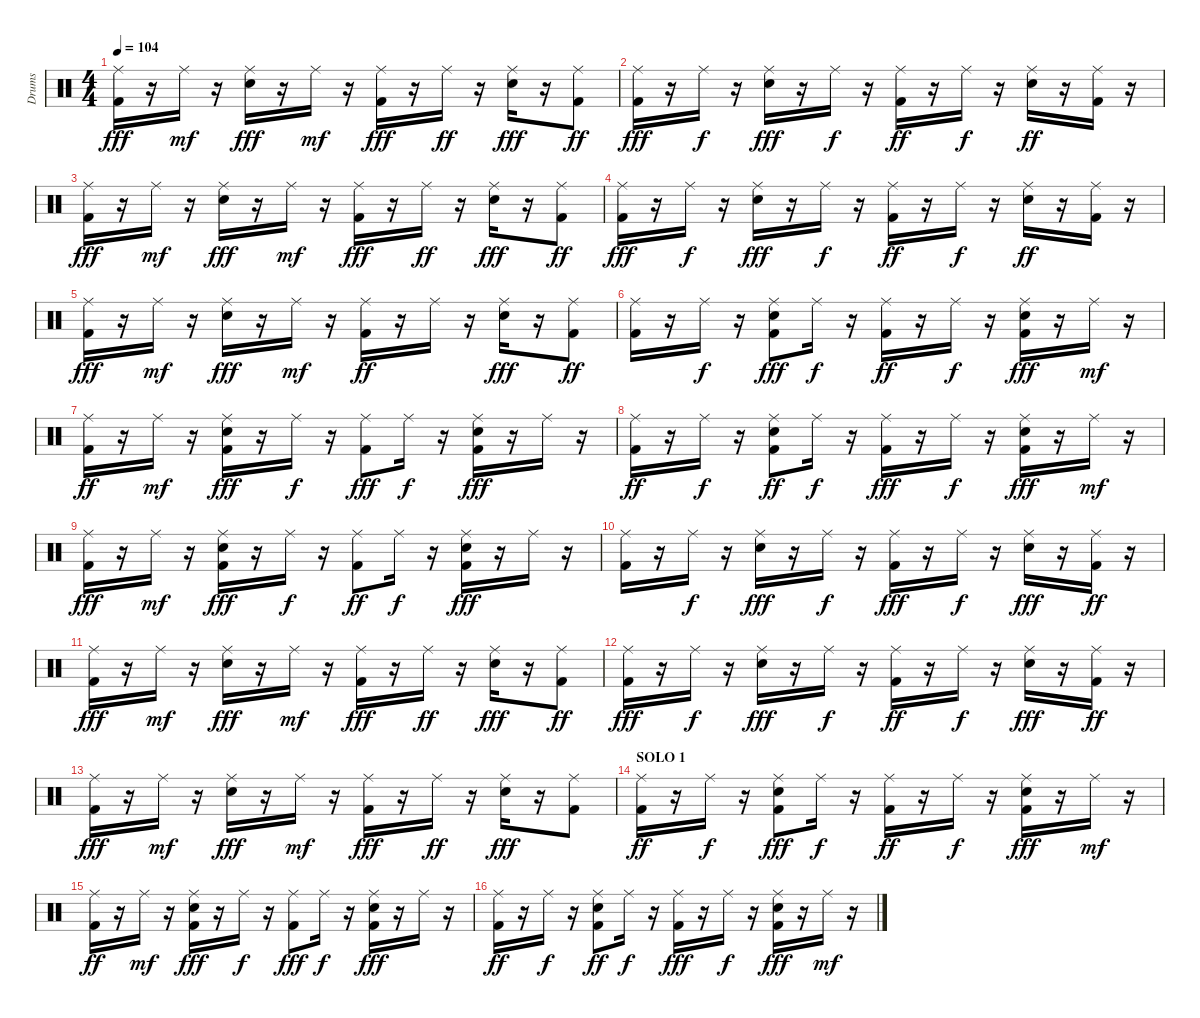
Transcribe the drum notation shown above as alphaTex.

\track ("Drums" "Drums") {instrument percussion}
\staff {score}
\articulation defaults
\ts (4 4)
\tempo 104
\clef neutral
\ks c
("Kick (hit) 2" "Ride (middle)").16{dy fff} r.16 "Ride (middle)".16{dy mf} r.16 ("Ride (middle)" "Snare (hit) 2").16{dy fff} r.16 "Ride (middle)".16{dy mf} r.16 ("Ride (middle)" "Kick (hit) 2").16{dy fff} r.16 "Ride (middle)".16{dy ff} r.16 ("Ride (middle)" "Snare (hit) 2").16{dy fff} r.16 ("Ride (middle)" "Kick (hit) 2").8{dy ff} |
("Ride (middle)" "Kick (hit) 2").16{dy fff} r.16 "Ride (middle)".16{dy f} r.16 ("Snare (hit) 2" "Ride (middle)").16{dy fff} r.16 "Ride (middle)".16{dy f} r.16 ("Kick (hit) 2" "Ride (middle)").16{dy ff} r.16 "Ride (middle)".16{dy f} r.16 ("Snare (hit) 2" "Ride (middle)").16{dy ff} r.16 ("Ride (middle)" "Kick (hit) 2").16 r.16 |
("Kick (hit) 2" "Ride (middle)").16{dy fff} r.16 "Ride (middle)".16{dy mf} r.16 ("Snare (hit) 2" "Ride (middle)").16{dy fff} r.16 "Ride (middle)".16{dy mf} r.16 ("Ride (middle)" "Kick (hit) 2").16{dy fff} r.16 "Ride (middle)".16{dy ff} r.16 ("Ride (middle)" "Snare (hit) 2").16{dy fff} r.16 ("Ride (middle)" "Kick (hit) 2").8{dy ff} |
("Ride (middle)" "Kick (hit) 2").16{dy fff} r.16 "Ride (middle)".16{dy f} r.16 ("Snare (hit) 2" "Ride (middle)").16{dy fff} r.16 "Ride (middle)".16{dy f} r.16 ("Kick (hit) 2" "Ride (middle)").16{dy ff} r.16 "Ride (middle)".16{dy f} r.16 ("Snare (hit) 2" "Ride (middle)").16{dy ff} r.16 ("Ride (middle)" "Kick (hit) 2").16 r.16 |
("Kick (hit) 2" "Ride (middle)").16{dy fff} r.16 "Ride (middle)".16{dy mf} r.16 ("Ride (middle)" "Snare (hit) 2").16{dy fff} r.16 "Ride (middle)".16{dy mf} r.16 ("Kick (hit) 2" "Ride (middle)").16{dy ff} r.16 "Ride (middle)".16 r.16 ("Ride (middle)" "Snare (hit) 2").16{dy fff} r.16 ("Ride (middle)" "Kick (hit) 2").8{dy ff} |
("Ride (middle)" "Kick (hit) 2").16 r.16 "Ride (middle)".16{dy f} r.16 ("Kick (hit) 2" "Ride (middle)" "Snare (hit) 2").8{dy fff} "Ride (middle)".16{dy f} r.16 ("Kick (hit) 2" "Ride (middle)").16{dy ff} r.16 "Ride (middle)".16{dy f} r.16 ("Ride (middle)" "Kick (hit) 2" "Snare (hit) 2").16{dy fff} r.16 "Ride (middle)".16{dy mf} r.16 |
("Kick (hit) 2" "Ride (middle)").16{dy ff} r.16 "Ride (middle)".16{dy mf} r.16 ("Snare (hit) 2" "Ride (middle)" "Kick (hit) 2").16{dy fff} r.16 "Ride (middle)".16{dy f} r.16 ("Ride (middle)" "Kick (hit) 2").8{dy fff} "Ride (middle)".16{dy f} r.16 ("Snare (hit) 2" "Ride (middle)" "Kick (hit) 2").16{dy fff} r.16 "Ride (middle)".16 r.16 |
("Kick (hit) 2" "Ride (middle)").16{dy ff} r.16 "Ride (middle)".16{dy f} r.16 ("Kick (hit) 2" "Snare (hit) 2" "Ride (middle)").8{dy ff} "Ride (middle)".16{dy f} r.16 ("Ride (middle)" "Kick (hit) 2").16{dy fff} r.16 "Ride (middle)".16{dy f} r.16 ("Snare (hit) 2" "Ride (middle)" "Kick (hit) 2").16{dy fff} r.16 "Ride (middle)".16{dy mf} r.16 |
("Ride (middle)" "Kick (hit) 2").16{dy fff} r.16 "Ride (middle)".16{dy mf} r.16 ("Snare (hit) 2" "Ride (middle)" "Kick (hit) 2").16{dy fff} r.16 "Ride (middle)".16{dy f} r.16 ("Kick (hit) 2" "Ride (middle)").8{dy ff} "Ride (middle)".16{dy f} r.16 ("Snare (hit) 2" "Ride (middle)" "Kick (hit) 2").16{dy fff} r.16 "Ride (middle)".16 r.16 |
("Ride (middle)" "Kick (hit) 2").16 r.16 "Ride (middle)".16{dy f} r.16 ("Ride (middle)" "Snare (hit) 2").16{dy fff} r.16 "Ride (middle)".16{dy f} r.16 ("Ride (middle)" "Kick (hit) 2").16{dy fff} r.16 "Ride (middle)".16{dy f} r.16 ("Ride (middle)" "Snare (hit) 2").16{dy fff} r.16 ("Kick (hit) 2" "Ride (middle)").16{dy ff} r.16 |
("Ride (middle)" "Kick (hit) 2").16{dy fff} r.16 "Ride (middle)".16{dy mf} r.16 ("Snare (hit) 2" "Ride (middle)").16{dy fff} r.16 "Ride (middle)".16{dy mf} r.16 ("Ride (middle)" "Kick (hit) 2").16{dy fff} r.16 "Ride (middle)".16{dy ff} r.16 ("Snare (hit) 2" "Ride (middle)").16{dy fff} r.16 ("Ride (middle)" "Kick (hit) 2").8{dy ff} |
("Ride (middle)" "Kick (hit) 2").16{dy fff} r.16 "Ride (middle)".16{dy f} r.16 ("Snare (hit) 2" "Ride (middle)").16{dy fff} r.16 "Ride (middle)".16{dy f} r.16 ("Kick (hit) 2" "Ride (middle)").16{dy ff} r.16 "Ride (middle)".16{dy f} r.16 ("Ride (middle)" "Snare (hit) 2").16{dy fff} r.16 ("Kick (hit) 2" "Ride (middle)").16{dy ff} r.16 |
("Ride (middle)" "Kick (hit) 2").16{dy fff} r.16 "Ride (middle)".16{dy mf} r.16 ("Snare (hit) 2" "Ride (middle)").16{dy fff} r.16 "Ride (middle)".16{dy mf} r.16 ("Ride (middle)" "Kick (hit) 2").16{dy fff} r.16 "Ride (middle)".16{dy ff} r.16 ("Ride (middle)" "Snare (hit) 2").16{dy fff} r.16 ("Kick (hit) 2" "Ride (middle)").8 |
\section ("" "SOLO 1")
("Ride (middle)" "Kick (hit) 2").16{dy ff} r.16 "Ride (middle)".16{dy f} r.16 ("Kick (hit) 2" "Ride (middle)" "Snare (hit) 2").8{dy fff} "Ride (middle)".16{dy f} r.16 ("Kick (hit) 2" "Ride (middle)").16{dy ff} r.16 "Ride (middle)".16{dy f} r.16 ("Ride (middle)" "Kick (hit) 2" "Snare (hit) 2").16{dy fff} r.16 "Ride (middle)".16{dy mf} r.16 |
("Kick (hit) 2" "Ride (middle)").16{dy ff} r.16 "Ride (middle)".16{dy mf} r.16 ("Snare (hit) 2" "Ride (middle)" "Kick (hit) 2").16{dy fff} r.16 "Ride (middle)".16{dy f} r.16 ("Ride (middle)" "Kick (hit) 2").8{dy fff} "Ride (middle)".16{dy f} r.16 ("Snare (hit) 2" "Ride (middle)" "Kick (hit) 2").16{dy fff} r.16 "Ride (middle)".16 r.16 |
("Kick (hit) 2" "Ride (middle)").16{dy ff} r.16 "Ride (middle)".16{dy f} r.16 ("Kick (hit) 2" "Snare (hit) 2" "Ride (middle)").8{dy ff} "Ride (middle)".16{dy f} r.16 ("Ride (middle)" "Kick (hit) 2").16{dy fff} r.16 "Ride (middle)".16{dy f} r.16 ("Snare (hit) 2" "Ride (middle)" "Kick (hit) 2").16{dy fff} r.16 "Ride (middle)".16{dy mf} r.16
